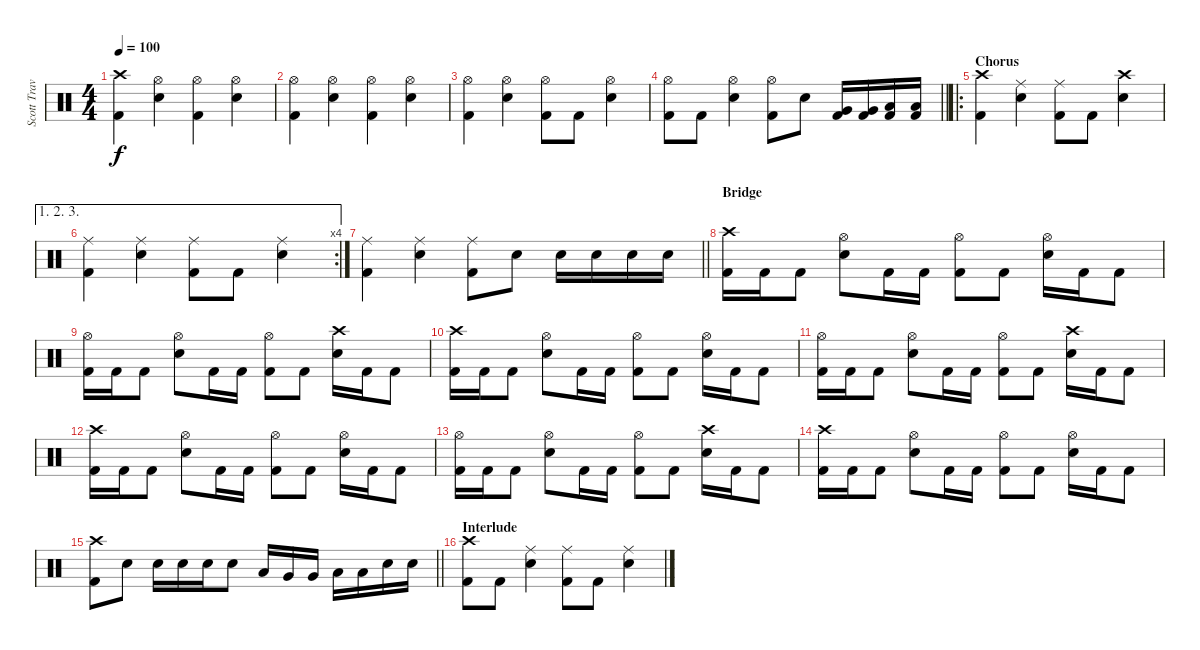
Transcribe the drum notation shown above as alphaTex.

\track ("Scott Travis" "Scott Trav") {instrument percussion}
\staff {score}
\articulation defaults
\ts (4 4)
\tempo 100
\clef neutral
\ks c
("Crash high (hit)" "Kick (hit) 2").4{dy f} ("Hi-Hat (open)" "Snare (hit) 2").4 ("Hi-Hat (open)" "Kick (hit) 2").4 ("Hi-Hat (open)" "Snare (hit) 2").4 |
("Hi-Hat (open)" "Kick (hit) 2").4 ("Hi-Hat (open)" "Snare (hit) 2").4 ("Hi-Hat (open)" "Kick (hit) 2").4 ("Hi-Hat (open)" "Snare (hit) 2").4 |
("Hi-Hat (open)" "Kick (hit) 2").4 ("Hi-Hat (open)" "Snare (hit) 2").4 ("Hi-Hat (open)" "Kick (hit) 2").8 "Kick (hit) 2".8 ("Hi-Hat (open)" "Snare (hit) 2").4 |
\barLineRight lightlight
("Hi-Hat (open)" "Kick (hit) 2").8 "Kick (hit) 2".8 ("Hi-Hat (open)" "Snare (hit) 2").4 ("Hi-Hat (open)" "Kick (hit) 2").8 "Snare (hit) 2".8 ("Very Low Tom (hit)" "Kick (hit) 2").16 ("Very Low Tom (hit)" "Kick (hit) 2").16 ("Low Floor Tom (hit)" "Kick (hit) 2").16 ("Low Floor Tom (hit)" "Kick (hit) 2").16 |
\ro
\section ("" "Chorus")
("Crash high (hit)" "Kick (hit) 2").4 ("Ride (middle)" "Snare (hit) 2").4 ("Ride (middle)" "Kick (hit) 2").8 "Kick (hit) 2".8 ("Crash high (hit)" "Snare (hit) 2").4 |
\ae (1 2 3)
\rc 4
("Ride (middle)" "Kick (hit) 2").4 ("Ride (middle)" "Snare (hit) 2").4 ("Ride (middle)" "Kick (hit) 2").8 "Kick (hit) 2".8 ("Ride (middle)" "Snare (hit) 2").4 |
\barLineRight lightlight
("Ride (middle)" "Kick (hit) 2").4 ("Ride (middle)" "Snare (hit) 2").4 ("Ride (middle)" "Kick (hit) 2").8 "Snare (hit) 2".8 "Snare (hit) 2".16 "Snare (hit) 2".16 "Snare (hit) 2".16 "Snare (hit) 2".16 |
\section ("" "Bridge")
("Crash high (hit)" "Kick (hit) 2").16 "Kick (hit) 2".16 "Kick (hit) 2".8 ("Hi-Hat (open)" "Snare (hit) 2").8 "Kick (hit) 2".16 "Kick (hit) 2".16 ("Hi-Hat (open)" "Kick (hit) 2").8 "Kick (hit) 2".8 ("Hi-Hat (open)" "Snare (hit) 2").16 "Kick (hit) 2".16 "Kick (hit) 2".8 |
("Hi-Hat (open)" "Kick (hit) 2").16 "Kick (hit) 2".16 "Kick (hit) 2".8 ("Hi-Hat (open)" "Snare (hit) 2").8 "Kick (hit) 2".16 "Kick (hit) 2".16 ("Hi-Hat (open)" "Kick (hit) 2").8 "Kick (hit) 2".8 ("Crash high (hit)" "Snare (hit) 2").16 "Kick (hit) 2".16 "Kick (hit) 2".8 |
("Crash high (hit)" "Kick (hit) 2").16 "Kick (hit) 2".16 "Kick (hit) 2".8 ("Hi-Hat (open)" "Snare (hit) 2").8 "Kick (hit) 2".16 "Kick (hit) 2".16 ("Hi-Hat (open)" "Kick (hit) 2").8 "Kick (hit) 2".8 ("Hi-Hat (open)" "Snare (hit) 2").16 "Kick (hit) 2".16 "Kick (hit) 2".8 |
("Hi-Hat (open)" "Kick (hit) 2").16 "Kick (hit) 2".16 "Kick (hit) 2".8 ("Hi-Hat (open)" "Snare (hit) 2").8 "Kick (hit) 2".16 "Kick (hit) 2".16 ("Hi-Hat (open)" "Kick (hit) 2").8 "Kick (hit) 2".8 ("Crash high (hit)" "Snare (hit) 2").16 "Kick (hit) 2".16 "Kick (hit) 2".8 |
("Crash high (hit)" "Kick (hit) 2").16 "Kick (hit) 2".16 "Kick (hit) 2".8 ("Hi-Hat (open)" "Snare (hit) 2").8 "Kick (hit) 2".16 "Kick (hit) 2".16 ("Hi-Hat (open)" "Kick (hit) 2").8 "Kick (hit) 2".8 ("Hi-Hat (open)" "Snare (hit) 2").16 "Kick (hit) 2".16 "Kick (hit) 2".8 |
("Hi-Hat (open)" "Kick (hit) 2").16 "Kick (hit) 2".16 "Kick (hit) 2".8 ("Hi-Hat (open)" "Snare (hit) 2").8 "Kick (hit) 2".16 "Kick (hit) 2".16 ("Hi-Hat (open)" "Kick (hit) 2").8 "Kick (hit) 2".8 ("Crash high (hit)" "Snare (hit) 2").16 "Kick (hit) 2".16 "Kick (hit) 2".8 |
("Crash high (hit)" "Kick (hit) 2").16 "Kick (hit) 2".16 "Kick (hit) 2".8 ("Hi-Hat (open)" "Snare (hit) 2").8 "Kick (hit) 2".16 "Kick (hit) 2".16 ("Hi-Hat (open)" "Kick (hit) 2").8 "Kick (hit) 2".8 ("Hi-Hat (open)" "Snare (hit) 2").16 "Kick (hit) 2".16 "Kick (hit) 2".8 |
\barLineRight lightlight
("Crash high (hit)" "Kick (hit) 2").8 "Snare (hit) 2".8 "Snare (hit) 2".16 "Snare (hit) 2".16 "Snare (hit) 2".16 "Snare (hit) 2".8 "Low Tom (hit)".16 "Very Low Tom (hit)".16 "Very Low Tom (hit)".16 "Low Floor Tom (hit)".16 "Low Floor Tom (hit)".16 "Snare (hit) 2".16 "Snare (hit) 2".16 |
\section ("" "Interlude")
("Crash high (hit)" "Kick (hit) 2").8 "Kick (hit) 2".8 ("Ride (middle)" "Snare (hit) 2").4 ("Ride (middle)" "Kick (hit) 2").8 "Kick (hit) 2".8 ("Ride (middle)" "Snare (hit) 2").4
